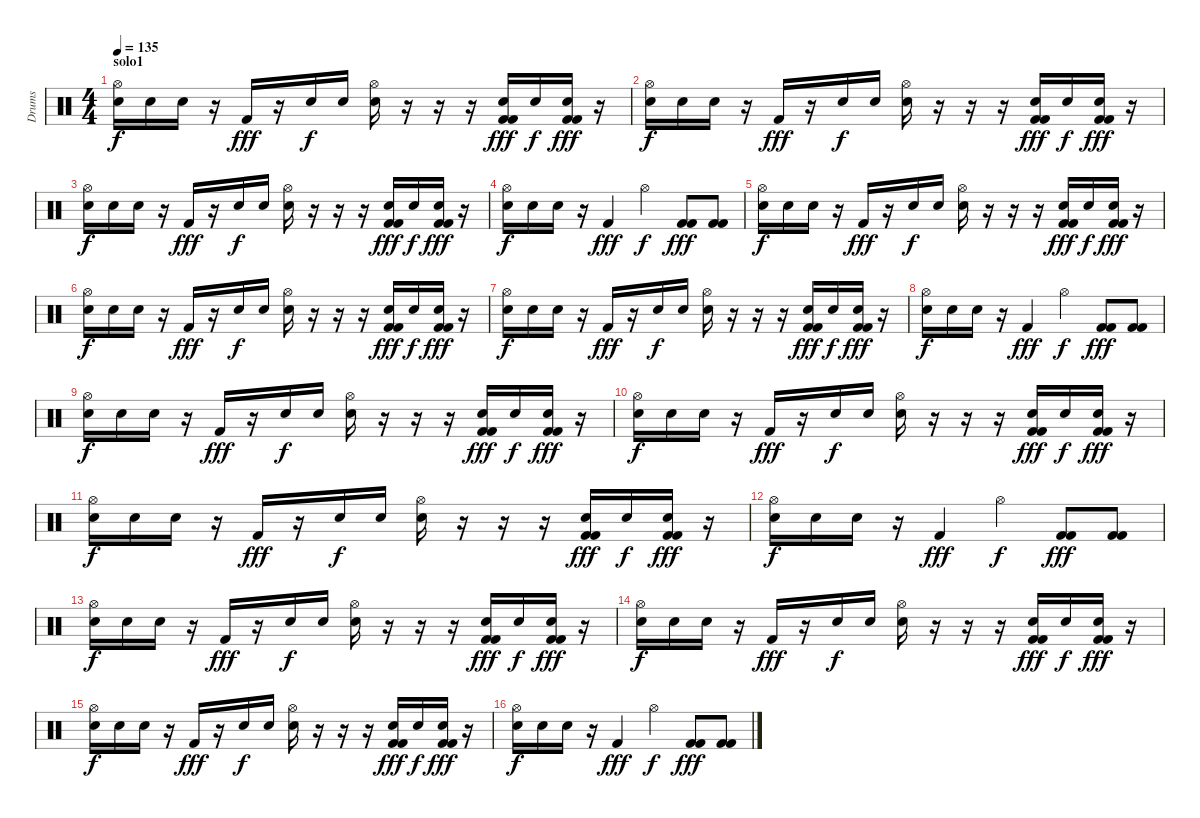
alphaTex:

\track ("Drums" "Drums") {instrument percussion}
\staff {score}
\articulation defaults
\ts (4 4)
\section ("" "solo1")
\tempo 135
\clef neutral
\ks c
("Hi-Hat (open)" "Electric Snare (hit)").16{dy f} "Electric Snare (hit)".16 "Electric Snare (hit)".16 r.16 "Kick (hit) 2".16{dy fff} r.16 "Electric Snare (hit)".16{dy f} "Electric Snare (hit)".16 ("Hi-Hat (open)" "Electric Snare (hit)").16 r.16 r.16 r.16 ("Kick (hit) 2" "Kick (hit) 2" "Electric Snare (hit)").16{dy fff} "Electric Snare (hit)".16{dy f} ("Kick (hit) 2" "Kick (hit) 2" "Electric Snare (hit)").16{dy fff} r.16 |
("Hi-Hat (open)" "Electric Snare (hit)").16{dy f} "Electric Snare (hit)".16 "Electric Snare (hit)".16 r.16 "Kick (hit) 2".16{dy fff} r.16 "Electric Snare (hit)".16{dy f} "Electric Snare (hit)".16 ("Hi-Hat (open)" "Electric Snare (hit)").16 r.16 r.16 r.16 ("Kick (hit) 2" "Kick (hit) 2" "Electric Snare (hit)").16{dy fff} "Electric Snare (hit)".16{dy f} ("Kick (hit) 2" "Kick (hit) 2" "Electric Snare (hit)").16{dy fff} r.16 |
("Hi-Hat (open)" "Electric Snare (hit)").16{dy f} "Electric Snare (hit)".16 "Electric Snare (hit)".16 r.16 "Kick (hit) 2".16{dy fff} r.16 "Electric Snare (hit)".16{dy f} "Electric Snare (hit)".16 ("Hi-Hat (open)" "Electric Snare (hit)").16 r.16 r.16 r.16 ("Kick (hit) 2" "Kick (hit) 2" "Electric Snare (hit)").16{dy fff} "Electric Snare (hit)".16{dy f} ("Kick (hit) 2" "Kick (hit) 2" "Electric Snare (hit)").16{dy fff} r.16 |
("Hi-Hat (open)" "Electric Snare (hit)").16{dy f} "Electric Snare (hit)".16 "Electric Snare (hit)".16 r.16 "Kick (hit) 2".4{dy fff} "Hi-Hat (open)".4{dy f} ("Kick (hit) 2" "Kick (hit) 2").8{dy fff} ("Kick (hit) 2" "Kick (hit) 2").8 |
("Hi-Hat (open)" "Electric Snare (hit)").16{dy f} "Electric Snare (hit)".16 "Electric Snare (hit)".16 r.16 "Kick (hit) 2".16{dy fff} r.16 "Electric Snare (hit)".16{dy f} "Electric Snare (hit)".16 ("Hi-Hat (open)" "Electric Snare (hit)").16 r.16 r.16 r.16 ("Kick (hit) 2" "Kick (hit) 2" "Electric Snare (hit)").16{dy fff} "Electric Snare (hit)".16{dy f} ("Kick (hit) 2" "Kick (hit) 2" "Electric Snare (hit)").16{dy fff} r.16 |
("Hi-Hat (open)" "Electric Snare (hit)").16{dy f} "Electric Snare (hit)".16 "Electric Snare (hit)".16 r.16 "Kick (hit) 2".16{dy fff} r.16 "Electric Snare (hit)".16{dy f} "Electric Snare (hit)".16 ("Hi-Hat (open)" "Electric Snare (hit)").16 r.16 r.16 r.16 ("Kick (hit) 2" "Kick (hit) 2" "Electric Snare (hit)").16{dy fff} "Electric Snare (hit)".16{dy f} ("Kick (hit) 2" "Kick (hit) 2" "Electric Snare (hit)").16{dy fff} r.16 |
("Hi-Hat (open)" "Electric Snare (hit)").16{dy f} "Electric Snare (hit)".16 "Electric Snare (hit)".16 r.16 "Kick (hit) 2".16{dy fff} r.16 "Electric Snare (hit)".16{dy f} "Electric Snare (hit)".16 ("Hi-Hat (open)" "Electric Snare (hit)").16 r.16 r.16 r.16 ("Kick (hit) 2" "Kick (hit) 2" "Electric Snare (hit)").16{dy fff} "Electric Snare (hit)".16{dy f} ("Kick (hit) 2" "Kick (hit) 2" "Electric Snare (hit)").16{dy fff} r.16 |
("Hi-Hat (open)" "Electric Snare (hit)").16{dy f} "Electric Snare (hit)".16 "Electric Snare (hit)".16 r.16 "Kick (hit) 2".4{dy fff} "Hi-Hat (open)".4{dy f} ("Kick (hit) 2" "Kick (hit) 2").8{dy fff} ("Kick (hit) 2" "Kick (hit) 2").8 |
("Hi-Hat (open)" "Electric Snare (hit)").16{dy f} "Electric Snare (hit)".16 "Electric Snare (hit)".16 r.16 "Kick (hit) 2".16{dy fff} r.16 "Electric Snare (hit)".16{dy f} "Electric Snare (hit)".16 ("Hi-Hat (open)" "Electric Snare (hit)").16 r.16 r.16 r.16 ("Kick (hit) 2" "Kick (hit) 2" "Electric Snare (hit)").16{dy fff} "Electric Snare (hit)".16{dy f} ("Kick (hit) 2" "Kick (hit) 2" "Electric Snare (hit)").16{dy fff} r.16 |
("Hi-Hat (open)" "Electric Snare (hit)").16{dy f} "Electric Snare (hit)".16 "Electric Snare (hit)".16 r.16 "Kick (hit) 2".16{dy fff} r.16 "Electric Snare (hit)".16{dy f} "Electric Snare (hit)".16 ("Hi-Hat (open)" "Electric Snare (hit)").16 r.16 r.16 r.16 ("Kick (hit) 2" "Kick (hit) 2" "Electric Snare (hit)").16{dy fff} "Electric Snare (hit)".16{dy f} ("Kick (hit) 2" "Kick (hit) 2" "Electric Snare (hit)").16{dy fff} r.16 |
("Hi-Hat (open)" "Electric Snare (hit)").16{dy f} "Electric Snare (hit)".16 "Electric Snare (hit)".16 r.16 "Kick (hit) 2".16{dy fff} r.16 "Electric Snare (hit)".16{dy f} "Electric Snare (hit)".16 ("Hi-Hat (open)" "Electric Snare (hit)").16 r.16 r.16 r.16 ("Kick (hit) 2" "Kick (hit) 2" "Electric Snare (hit)").16{dy fff} "Electric Snare (hit)".16{dy f} ("Kick (hit) 2" "Kick (hit) 2" "Electric Snare (hit)").16{dy fff} r.16 |
("Hi-Hat (open)" "Electric Snare (hit)").16{dy f} "Electric Snare (hit)".16 "Electric Snare (hit)".16 r.16 "Kick (hit) 2".4{dy fff} "Hi-Hat (open)".4{dy f} ("Kick (hit) 2" "Kick (hit) 2").8{dy fff} ("Kick (hit) 2" "Kick (hit) 2").8 |
("Hi-Hat (open)" "Electric Snare (hit)").16{dy f} "Electric Snare (hit)".16 "Electric Snare (hit)".16 r.16 "Kick (hit) 2".16{dy fff} r.16 "Electric Snare (hit)".16{dy f} "Electric Snare (hit)".16 ("Hi-Hat (open)" "Electric Snare (hit)").16 r.16 r.16 r.16 ("Kick (hit) 2" "Kick (hit) 2" "Electric Snare (hit)").16{dy fff} "Electric Snare (hit)".16{dy f} ("Kick (hit) 2" "Kick (hit) 2" "Electric Snare (hit)").16{dy fff} r.16 |
("Hi-Hat (open)" "Electric Snare (hit)").16{dy f} "Electric Snare (hit)".16 "Electric Snare (hit)".16 r.16 "Kick (hit) 2".16{dy fff} r.16 "Electric Snare (hit)".16{dy f} "Electric Snare (hit)".16 ("Hi-Hat (open)" "Electric Snare (hit)").16 r.16 r.16 r.16 ("Kick (hit) 2" "Kick (hit) 2" "Electric Snare (hit)").16{dy fff} "Electric Snare (hit)".16{dy f} ("Kick (hit) 2" "Kick (hit) 2" "Electric Snare (hit)").16{dy fff} r.16 |
("Hi-Hat (open)" "Electric Snare (hit)").16{dy f} "Electric Snare (hit)".16 "Electric Snare (hit)".16 r.16 "Kick (hit) 2".16{dy fff} r.16 "Electric Snare (hit)".16{dy f} "Electric Snare (hit)".16 ("Hi-Hat (open)" "Electric Snare (hit)").16 r.16 r.16 r.16 ("Kick (hit) 2" "Kick (hit) 2" "Electric Snare (hit)").16{dy fff} "Electric Snare (hit)".16{dy f} ("Kick (hit) 2" "Kick (hit) 2" "Electric Snare (hit)").16{dy fff} r.16 |
("Hi-Hat (open)" "Electric Snare (hit)").16{dy f} "Electric Snare (hit)".16 "Electric Snare (hit)".16 r.16 "Kick (hit) 2".4{dy fff} "Hi-Hat (open)".4{dy f} ("Kick (hit) 2" "Kick (hit) 2").8{dy fff} ("Kick (hit) 2" "Kick (hit) 2").8
